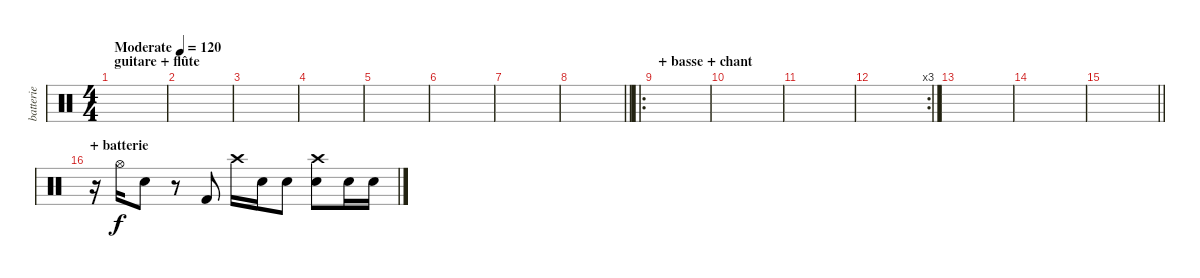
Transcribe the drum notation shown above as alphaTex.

\track ("batterie" "batterie") {instrument percussion}
\staff {score}
\articulation defaults
\ts (4 4)
\section ("" "guitare + flûte")
\tempo (120 "Moderate")
\clef neutral
\ks c
|
|
|
|
|
|
|
\barLineRight lightlight
|
\ro
\section ("" "+ basse + chant")
|
|
|
\rc 3
|
|
|
\barLineRight lightlight
|
\section ("" "+ batterie")
r.16 "Hi-Hat (open)".16 "Electric Snare (hit)".8 r.8 "Kick (hit) 2".8 "Crash high (hit)".16 "Electric Snare (hit)".16 "Electric Snare (hit)".8 ("Crash high (hit)" "Electric Snare (hit)").8 "Electric Snare (hit)".16 "Electric Snare (hit)".16
